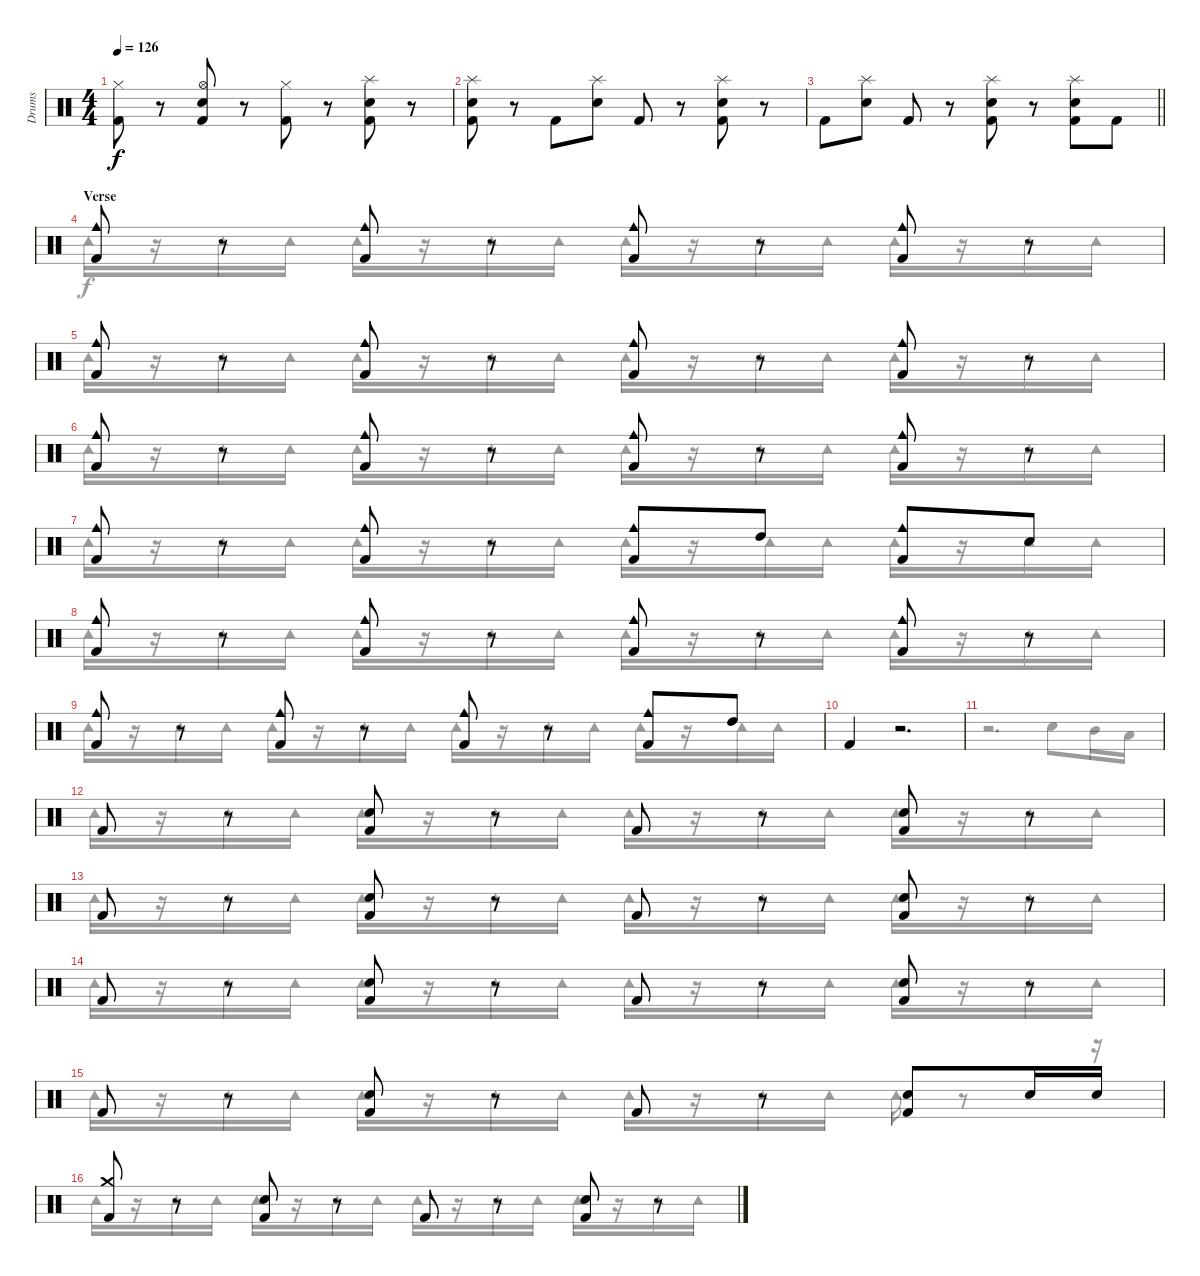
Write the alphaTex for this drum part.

\track ("Drums" "Drums") {instrument percussion}
\staff {score}
\articulation defaults
\voice
\ts (4 4)
\tempo 126
\clef neutral
\ks c
("Hi-Hat (closed)" "Kick (hit) 2").8{dy f} r.8 ("Hi-Hat (open)" "Electric Snare (hit)" "Kick (hit) 2").8 r.8 ("Hi-Hat (closed)" "Kick (hit) 2").8 r.8 ("Splash (hit)" "Electric Snare (hit)" "Kick (hit) 2").8 r.8 |
("Splash (hit)" "Electric Snare (hit)" "Kick (hit) 2").8 r.8 "Kick (hit) 2".8 ("Splash (hit)" "Electric Snare (hit)").8 "Kick (hit) 2".8 r.8 ("Splash (hit)" "Electric Snare (hit)" "Kick (hit) 2").8 r.8 |
\barLineRight lightlight "Kick (hit) 2".8
("Splash (hit)" "Electric Snare (hit)").8 "Kick (hit) 2".8 r.8 ("Splash (hit)" "Electric Snare (hit)" "Kick (hit) 2").8 r.8 ("Splash (hit)" "Electric Snare (hit)" "Kick (hit) 2").8 "Kick (hit) 2".8 |
\section ("" "Verse")
("Cowbell medium (hit)" "Kick (hit) 2").8 r.8 ("Cowbell medium (hit)" "Kick (hit) 2").8 r.8 ("Cowbell medium (hit)" "Kick (hit) 2").8 r.8 ("Cowbell medium (hit)" "Kick (hit) 2").8 r.8 |
("Cowbell medium (hit)" "Kick (hit) 2").8 r.8 ("Cowbell medium (hit)" "Kick (hit) 2").8 r.8 ("Cowbell medium (hit)" "Kick (hit) 2").8 r.8 ("Cowbell medium (hit)" "Kick (hit) 2").8 r.8 |
("Cowbell medium (hit)" "Kick (hit) 2").8 r.8 ("Cowbell medium (hit)" "Kick (hit) 2").8 r.8 ("Cowbell medium (hit)" "Kick (hit) 2").8 r.8 ("Cowbell medium (hit)" "Kick (hit) 2").8 r.8 |
("Cowbell medium (hit)" "Kick (hit) 2").8 r.8 ("Cowbell medium (hit)" "Kick (hit) 2").8 r.8 ("Cowbell medium (hit)" "Kick (hit) 2").8 "High Tom (hit)".8 ("Cowbell medium (hit)" "Kick (hit) 2").8 "Electric Snare (hit)".8 |
("Cowbell medium (hit)" "Kick (hit) 2").8 r.8 ("Cowbell medium (hit)" "Kick (hit) 2").8 r.8 ("Cowbell medium (hit)" "Kick (hit) 2").8 r.8 ("Cowbell medium (hit)" "Kick (hit) 2").8 r.8 |
("Cowbell medium (hit)" "Kick (hit) 2").8 r.8 ("Cowbell medium (hit)" "Kick (hit) 2").8 r.8 ("Cowbell medium (hit)" "Kick (hit) 2").8 r.8 ("Cowbell medium (hit)" "Kick (hit) 2").8 "High Tom (hit)".8 |
"Kick (hit) 2".4 r.2{d} |
|
"Kick (hit) 2".8 r.8 ("Electric Snare (hit)" "Kick (hit) 2").8 r.8 "Kick (hit) 2".8 r.8 ("Electric Snare (hit)" "Kick (hit) 2").8 r.8 |
"Kick (hit) 2".8 r.8 ("Electric Snare (hit)" "Kick (hit) 2").8 r.8 "Kick (hit) 2".8 r.8 ("Electric Snare (hit)" "Kick (hit) 2").8 r.8 |
"Kick (hit) 2".8 r.8 ("Electric Snare (hit)" "Kick (hit) 2").8 r.8 "Kick (hit) 2".8 r.8 ("Electric Snare (hit)" "Kick (hit) 2").8 r.8 |
"Kick (hit) 2".8 r.8 ("Electric Snare (hit)" "Kick (hit) 2").8 r.8 "Kick (hit) 2".8 r.8 ("Electric Snare (hit)" "Kick (hit) 2").8 "Electric Snare (hit)".16 "Electric Snare (hit)".16 |
("Crash medium (hit)" "Kick (hit) 2").8 r.8 ("Electric Snare (hit)" "Kick (hit) 2").8 r.8 "Kick (hit) 2".8 r.8 ("Electric Snare (hit)" "Kick (hit) 2").8 r.8
\voice
\clef neutral
\ottava regular
\simile none
\ks c
|
|
\barLineRight lightlight
|
"Tambourine (hit)".16 r.16 "Tambourine (hit)".16 "Tambourine (hit)".16 "Tambourine (hit)".16 r.16 "Tambourine (hit)".16 "Tambourine (hit)".16 "Tambourine (hit)".16 r.16 "Tambourine (hit)".16 "Tambourine (hit)".16 "Tambourine (hit)".16 r.16 "Tambourine (hit)".16 "Tambourine (hit)".16 |
"Tambourine (hit)".16 r.16 "Tambourine (hit)".16 "Tambourine (hit)".16 "Tambourine (hit)".16 r.16 "Tambourine (hit)".16 "Tambourine (hit)".16 "Tambourine (hit)".16 r.16 "Tambourine (hit)".16 "Tambourine (hit)".16 "Tambourine (hit)".16 r.16 "Tambourine (hit)".16 "Tambourine (hit)".16 |
"Tambourine (hit)".16 r.16 "Tambourine (hit)".16 "Tambourine (hit)".16 "Tambourine (hit)".16 r.16 "Tambourine (hit)".16 "Tambourine (hit)".16 "Tambourine (hit)".16 r.16 "Tambourine (hit)".16 "Tambourine (hit)".16 "Tambourine (hit)".16 r.16 "Tambourine (hit)".16 "Tambourine (hit)".16 |
"Tambourine (hit)".16 r.16 "Tambourine (hit)".16 "Tambourine (hit)".16 "Tambourine (hit)".16 r.16 "Tambourine (hit)".16 "Tambourine (hit)".16 "Tambourine (hit)".16 r.16 "Tambourine (hit)".16 "Tambourine (hit)".16 "Tambourine (hit)".16 r.16 "Tambourine (hit)".16 "Tambourine (hit)".16 |
"Tambourine (hit)".16 r.16 "Tambourine (hit)".16 "Tambourine (hit)".16 "Tambourine (hit)".16 r.16 "Tambourine (hit)".16 "Tambourine (hit)".16 "Tambourine (hit)".16 r.16 "Tambourine (hit)".16 "Tambourine (hit)".16 "Tambourine (hit)".16 r.16 "Tambourine (hit)".16 "Tambourine (hit)".16 |
"Tambourine (hit)".16 r.16 "Tambourine (hit)".16 "Tambourine (hit)".16 "Tambourine (hit)".16 r.16 "Tambourine (hit)".16 "Tambourine (hit)".16 "Tambourine (hit)".16 r.16 "Tambourine (hit)".16 "Tambourine (hit)".16 "Tambourine (hit)".16 r.16 "Tambourine (hit)".16 "Tambourine (hit)".16 |
|
r.2{d} "Electric Snare (hit)".8 "Mid Tom (hit)".16 "Low Tom (hit)".16 |
"Tambourine (hit)".16 r.16 "Tambourine (hit)".16 "Tambourine (hit)".16 "Tambourine (hit)".16 r.16 "Tambourine (hit)".16 "Tambourine (hit)".16 "Tambourine (hit)".16 r.16 "Tambourine (hit)".16 "Tambourine (hit)".16 "Tambourine (hit)".16 r.16 "Tambourine (hit)".16 "Tambourine (hit)".16 |
"Tambourine (hit)".16 r.16 "Tambourine (hit)".16 "Tambourine (hit)".16 "Tambourine (hit)".16 r.16 "Tambourine (hit)".16 "Tambourine (hit)".16 "Tambourine (hit)".16 r.16 "Tambourine (hit)".16 "Tambourine (hit)".16 "Tambourine (hit)".16 r.16 "Tambourine (hit)".16 "Tambourine (hit)".16 |
"Tambourine (hit)".16 r.16 "Tambourine (hit)".16 "Tambourine (hit)".16 "Tambourine (hit)".16 r.16 "Tambourine (hit)".16 "Tambourine (hit)".16 "Tambourine (hit)".16 r.16 "Tambourine (hit)".16 "Tambourine (hit)".16 "Tambourine (hit)".16 r.16 "Tambourine (hit)".16 "Tambourine (hit)".16 |
"Tambourine (hit)".16 r.16 "Tambourine (hit)".16 "Tambourine (hit)".16 "Tambourine (hit)".16 r.16 "Tambourine (hit)".16 "Tambourine (hit)".16 "Tambourine (hit)".16 r.16 "Tambourine (hit)".16 "Tambourine (hit)".16 "Tambourine (hit)".16 r.8 r.16 |
"Tambourine (hit)".16 r.16 "Tambourine (hit)".16 "Tambourine (hit)".16 "Tambourine (hit)".16 r.16 "Tambourine (hit)".16 "Tambourine (hit)".16 "Tambourine (hit)".16 r.16 "Tambourine (hit)".16 "Tambourine (hit)".16 "Tambourine (hit)".16 r.16 "Tambourine (hit)".16 "Tambourine (hit)".16
